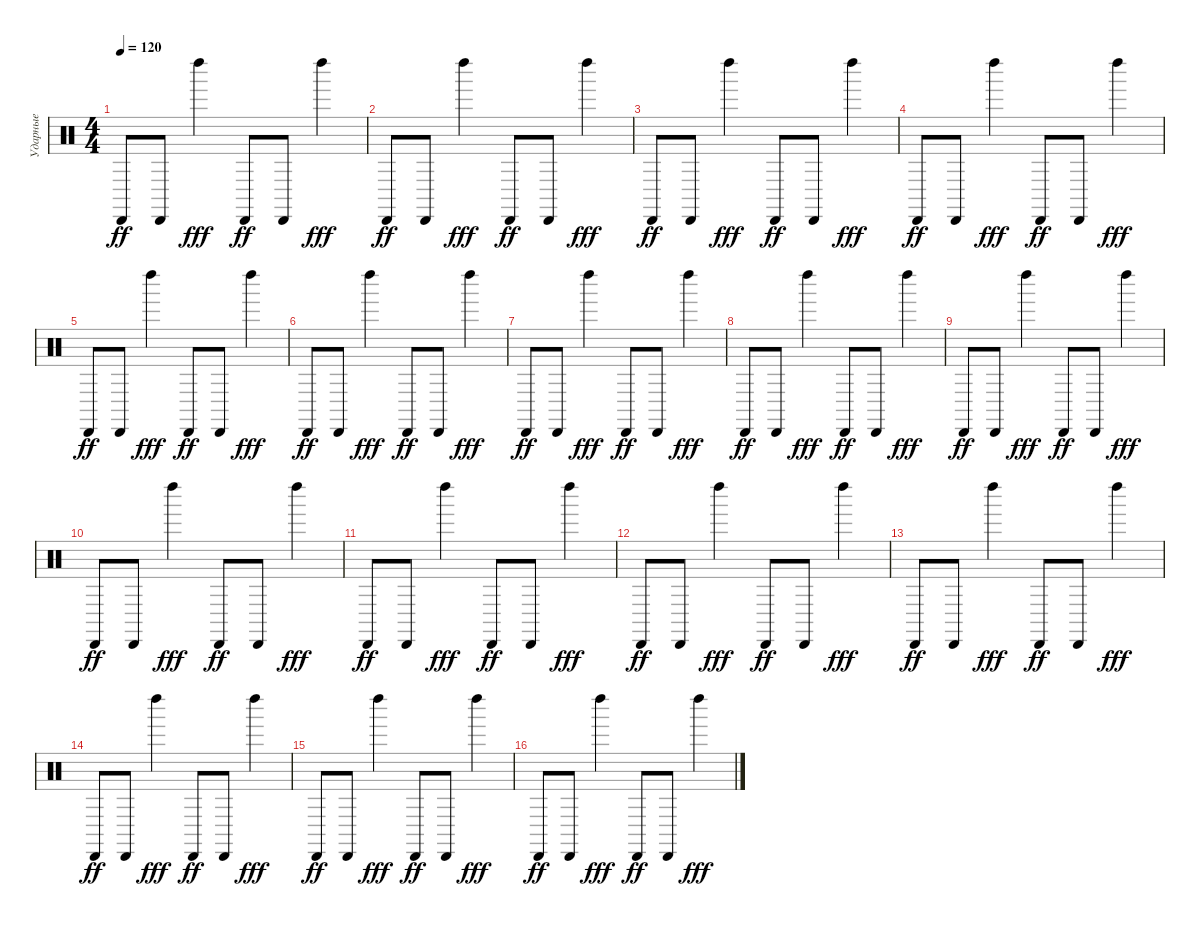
\track ("Ударные" "Ударные") {instrument percussion}
\staff {score}
\articulation defaults
\ts (4 4)
\tempo 120
\clef neutral
\ks c "Cabasa (hit)".8{dy ff} "Cabasa (hit)".8 "Left Maraca (hit)".4{dy fff} "Cabasa (hit)".8{dy ff} "Cabasa (hit)".8 "Left Maraca (hit)".4{dy fff}
|
"Cabasa (hit)".8{dy ff} "Cabasa (hit)".8 "Left Maraca (hit)".4{dy fff} "Cabasa (hit)".8{dy ff} "Cabasa (hit)".8 "Left Maraca (hit)".4{dy fff} |
"Cabasa (hit)".8{dy ff} "Cabasa (hit)".8 "Left Maraca (hit)".4{dy fff} "Cabasa (hit)".8{dy ff} "Cabasa (hit)".8 "Left Maraca (hit)".4{dy fff} |
"Cabasa (hit)".8{dy ff} "Cabasa (hit)".8 "Left Maraca (hit)".4{dy fff} "Cabasa (hit)".8{dy ff} "Cabasa (hit)".8 "Left Maraca (hit)".4{dy fff} |
"Cabasa (hit)".8{dy ff} "Cabasa (hit)".8 "Left Maraca (hit)".4{dy fff} "Cabasa (hit)".8{dy ff} "Cabasa (hit)".8 "Left Maraca (hit)".4{dy fff} |
"Cabasa (hit)".8{dy ff} "Cabasa (hit)".8 "Left Maraca (hit)".4{dy fff} "Cabasa (hit)".8{dy ff} "Cabasa (hit)".8 "Left Maraca (hit)".4{dy fff} |
"Cabasa (hit)".8{dy ff} "Cabasa (hit)".8 "Left Maraca (hit)".4{dy fff} "Cabasa (hit)".8{dy ff} "Cabasa (hit)".8 "Left Maraca (hit)".4{dy fff} |
"Cabasa (hit)".8{dy ff} "Cabasa (hit)".8 "Left Maraca (hit)".4{dy fff} "Cabasa (hit)".8{dy ff} "Cabasa (hit)".8 "Left Maraca (hit)".4{dy fff} |
"Cabasa (hit)".8{dy ff} "Cabasa (hit)".8 "Left Maraca (hit)".4{dy fff} "Cabasa (hit)".8{dy ff} "Cabasa (hit)".8 "Left Maraca (hit)".4{dy fff} |
"Cabasa (hit)".8{dy ff} "Cabasa (hit)".8 "Left Maraca (hit)".4{dy fff} "Cabasa (hit)".8{dy ff} "Cabasa (hit)".8 "Left Maraca (hit)".4{dy fff} |
"Cabasa (hit)".8{dy ff} "Cabasa (hit)".8 "Left Maraca (hit)".4{dy fff} "Cabasa (hit)".8{dy ff} "Cabasa (hit)".8 "Left Maraca (hit)".4{dy fff} |
"Cabasa (hit)".8{dy ff} "Cabasa (hit)".8 "Left Maraca (hit)".4{dy fff} "Cabasa (hit)".8{dy ff} "Cabasa (hit)".8 "Left Maraca (hit)".4{dy fff} |
"Cabasa (hit)".8{dy ff} "Cabasa (hit)".8 "Left Maraca (hit)".4{dy fff} "Cabasa (hit)".8{dy ff} "Cabasa (hit)".8 "Left Maraca (hit)".4{dy fff} |
"Cabasa (hit)".8{dy ff} "Cabasa (hit)".8 "Left Maraca (hit)".4{dy fff} "Cabasa (hit)".8{dy ff} "Cabasa (hit)".8 "Left Maraca (hit)".4{dy fff} |
"Cabasa (hit)".8{dy ff} "Cabasa (hit)".8 "Left Maraca (hit)".4{dy fff} "Cabasa (hit)".8{dy ff} "Cabasa (hit)".8 "Left Maraca (hit)".4{dy fff} |
"Cabasa (hit)".8{dy ff} "Cabasa (hit)".8 "Left Maraca (hit)".4{dy fff} "Cabasa (hit)".8{dy ff} "Cabasa (hit)".8 "Left Maraca (hit)".4{dy fff}
